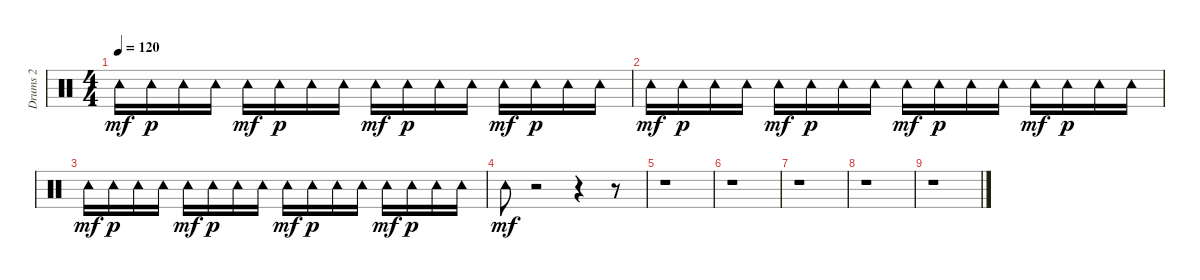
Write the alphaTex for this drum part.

\track ("Drums 2" "Drums 2") {instrument percussion}
\staff {score}
\articulation defaults
\ts (4 4)
\tempo 120
\clef neutral
\ks c "Tambourine (hit)".16{dy mf} "Tambourine (hit)".16{dy p} "Tambourine (hit)".16 "Tambourine (hit)".16 "Tambourine (hit)".16{dy mf} "Tambourine (hit)".16{dy p} "Tambourine (hit)".16 "Tambourine (hit)".16 "Tambourine (hit)".16{dy mf} "Tambourine (hit)".16{dy p} "Tambourine (hit)".16 "Tambourine (hit)".16 "Tambourine (hit)".16{dy mf} "Tambourine (hit)".16{dy p} "Tambourine (hit)".16 "Tambourine (hit)".16
|
"Tambourine (hit)".16{dy mf} "Tambourine (hit)".16{dy p} "Tambourine (hit)".16 "Tambourine (hit)".16 "Tambourine (hit)".16{dy mf} "Tambourine (hit)".16{dy p} "Tambourine (hit)".16 "Tambourine (hit)".16 "Tambourine (hit)".16{dy mf} "Tambourine (hit)".16{dy p} "Tambourine (hit)".16 "Tambourine (hit)".16 "Tambourine (hit)".16{dy mf} "Tambourine (hit)".16{dy p} "Tambourine (hit)".16 "Tambourine (hit)".16 |
"Tambourine (hit)".16{dy mf} "Tambourine (hit)".16{dy p} "Tambourine (hit)".16 "Tambourine (hit)".16 "Tambourine (hit)".16{dy mf} "Tambourine (hit)".16{dy p} "Tambourine (hit)".16 "Tambourine (hit)".16 "Tambourine (hit)".16{dy mf} "Tambourine (hit)".16{dy p} "Tambourine (hit)".16 "Tambourine (hit)".16 "Tambourine (hit)".16{dy mf} "Tambourine (hit)".16{dy p} "Tambourine (hit)".16 "Tambourine (hit)".16 |
"Tambourine (hit)".8{dy mf} r.2 r.4 r.8 |
r.1 |
r.1 |
r.1 |
r.1 |
r.1
